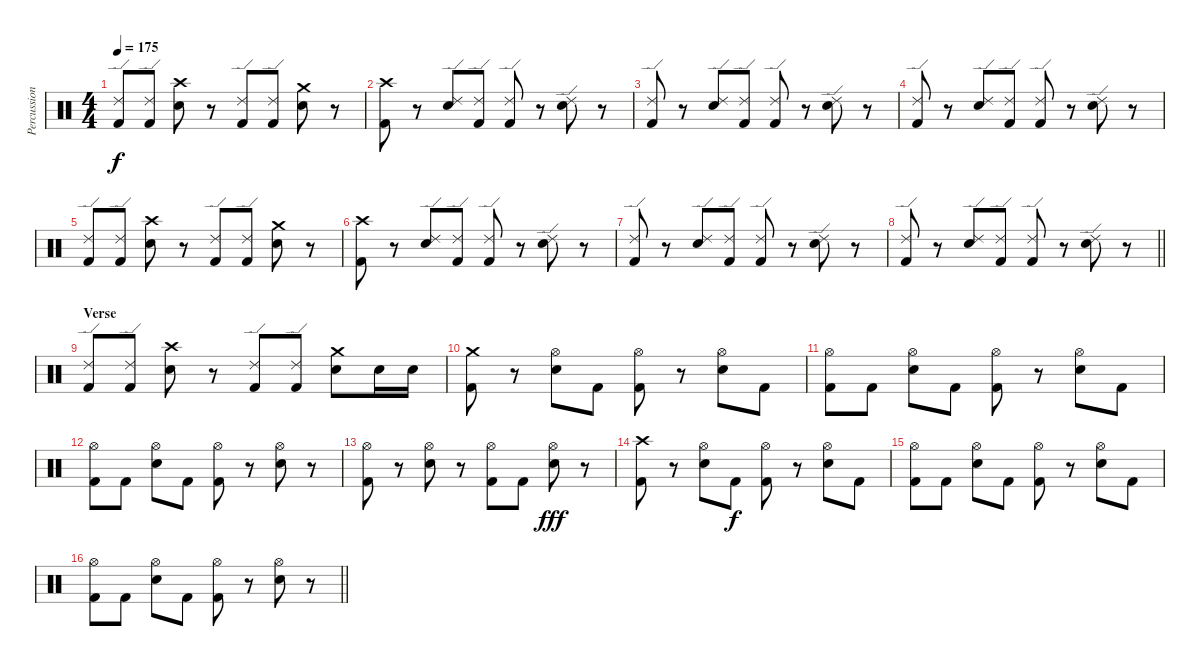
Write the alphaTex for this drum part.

\track ("Percussion" "Percussion") {instrument percussion}
\staff {score}
\articulation defaults
\ts (4 4)
\tempo 175
\clef neutral
\ks c
("Ride (edge) 2" "Kick (hit) 2").8{dy f} ("Ride (edge) 2" "Kick (hit) 2").8 ("Crash high (hit)" "Electric Snare (hit)").8 r.8 ("Ride (edge) 2" "Kick (hit) 2").8 ("Ride (edge) 2" "Kick (hit) 2").8 ("Crash medium (hit)" "Electric Snare (hit)").8 r.8 |
("Crash high (hit)" "Kick (hit) 2").8 r.8 ("Ride (edge) 2" "Electric Snare (hit)").8 ("Ride (edge) 2" "Kick (hit) 2").8 ("Ride (edge) 2" "Kick (hit) 2").8 r.8 ("Ride (edge) 2" "Electric Snare (hit)").8 r.8 |
("Ride (edge) 2" "Kick (hit) 2").8 r.8 ("Ride (edge) 2" "Electric Snare (hit)").8 ("Ride (edge) 2" "Kick (hit) 2").8 ("Ride (edge) 2" "Kick (hit) 2").8 r.8 ("Ride (edge) 2" "Electric Snare (hit)").8 r.8 |
("Ride (edge) 2" "Kick (hit) 2").8 r.8 ("Ride (edge) 2" "Electric Snare (hit)").8 ("Ride (edge) 2" "Kick (hit) 2").8 ("Ride (edge) 2" "Kick (hit) 2").8 r.8 ("Ride (edge) 2" "Electric Snare (hit)").8 r.8 |
("Ride (edge) 2" "Kick (hit) 2").8 ("Ride (edge) 2" "Kick (hit) 2").8 ("Crash high (hit)" "Electric Snare (hit)").8 r.8 ("Ride (edge) 2" "Kick (hit) 2").8 ("Ride (edge) 2" "Kick (hit) 2").8 ("Crash medium (hit)" "Electric Snare (hit)").8 r.8 |
("Crash high (hit)" "Kick (hit) 2").8 r.8 ("Ride (edge) 2" "Electric Snare (hit)").8 ("Ride (edge) 2" "Kick (hit) 2").8 ("Ride (edge) 2" "Kick (hit) 2").8 r.8 ("Ride (edge) 2" "Electric Snare (hit)").8 r.8 |
("Ride (edge) 2" "Kick (hit) 2").8 r.8 ("Ride (edge) 2" "Electric Snare (hit)").8 ("Ride (edge) 2" "Kick (hit) 2").8 ("Ride (edge) 2" "Kick (hit) 2").8 r.8 ("Ride (edge) 2" "Electric Snare (hit)").8 r.8 |
\barLineRight lightlight
("Ride (edge) 2" "Kick (hit) 2").8 r.8 ("Ride (edge) 2" "Electric Snare (hit)").8 ("Ride (edge) 2" "Kick (hit) 2").8 ("Ride (edge) 2" "Kick (hit) 2").8 r.8 ("Ride (edge) 2" "Electric Snare (hit)").8 r.8 |
\section ("" "Verse")
("Ride (edge) 2" "Kick (hit) 2").8 ("Ride (edge) 2" "Kick (hit) 2").8 ("Crash high (hit)" "Electric Snare (hit)").8 r.8 ("Ride (edge) 2" "Kick (hit) 2").8 ("Ride (edge) 2" "Kick (hit) 2").8 ("Crash medium (hit)" "Electric Snare (hit)").8 "Electric Snare (hit)".16 "Electric Snare (hit)".16 |
("Crash medium (hit)" "Kick (hit) 2").8 r.8 ("Hi-Hat (open)" "Electric Snare (hit)").8 "Kick (hit) 2".8 ("Hi-Hat (open)" "Kick (hit) 2").8 r.8 ("Hi-Hat (open)" "Electric Snare (hit)").8 "Kick (hit) 2".8 |
("Hi-Hat (open)" "Kick (hit) 2").8 "Kick (hit) 2".8 ("Hi-Hat (open)" "Electric Snare (hit)").8 "Kick (hit) 2".8 ("Hi-Hat (open)" "Kick (hit) 2").8 r.8 ("Hi-Hat (open)" "Electric Snare (hit)").8 "Kick (hit) 2".8 |
("Hi-Hat (open)" "Kick (hit) 2").8 "Kick (hit) 2".8 ("Hi-Hat (open)" "Electric Snare (hit)").8 "Kick (hit) 2".8 ("Hi-Hat (open)" "Kick (hit) 2").8 r.8 ("Hi-Hat (open)" "Electric Snare (hit)").8 r.8 |
("Hi-Hat (open)" "Kick (hit) 2").8 r.8 ("Hi-Hat (open)" "Electric Snare (hit)").8 r.8 ("Hi-Hat (open)" "Kick (hit) 2").8 "Kick (hit) 2".8 ("Hi-Hat (open)" "Electric Snare (hit)").8{dy fff} r.8 |
("Crash high (hit)" "Kick (hit) 2").8 r.8 ("Hi-Hat (open)" "Electric Snare (hit)").8 "Kick (hit) 2".8{dy f} ("Hi-Hat (open)" "Kick (hit) 2").8 r.8 ("Hi-Hat (open)" "Electric Snare (hit)").8 "Kick (hit) 2".8 |
("Hi-Hat (open)" "Kick (hit) 2").8 "Kick (hit) 2".8 ("Hi-Hat (open)" "Electric Snare (hit)").8 "Kick (hit) 2".8 ("Hi-Hat (open)" "Kick (hit) 2").8 r.8 ("Hi-Hat (open)" "Electric Snare (hit)").8 "Kick (hit) 2".8 |
\barLineRight lightlight
("Hi-Hat (open)" "Kick (hit) 2").8 "Kick (hit) 2".8 ("Hi-Hat (open)" "Electric Snare (hit)").8 "Kick (hit) 2".8 ("Hi-Hat (open)" "Kick (hit) 2").8 r.8 ("Hi-Hat (open)" "Electric Snare (hit)").8 r.8
